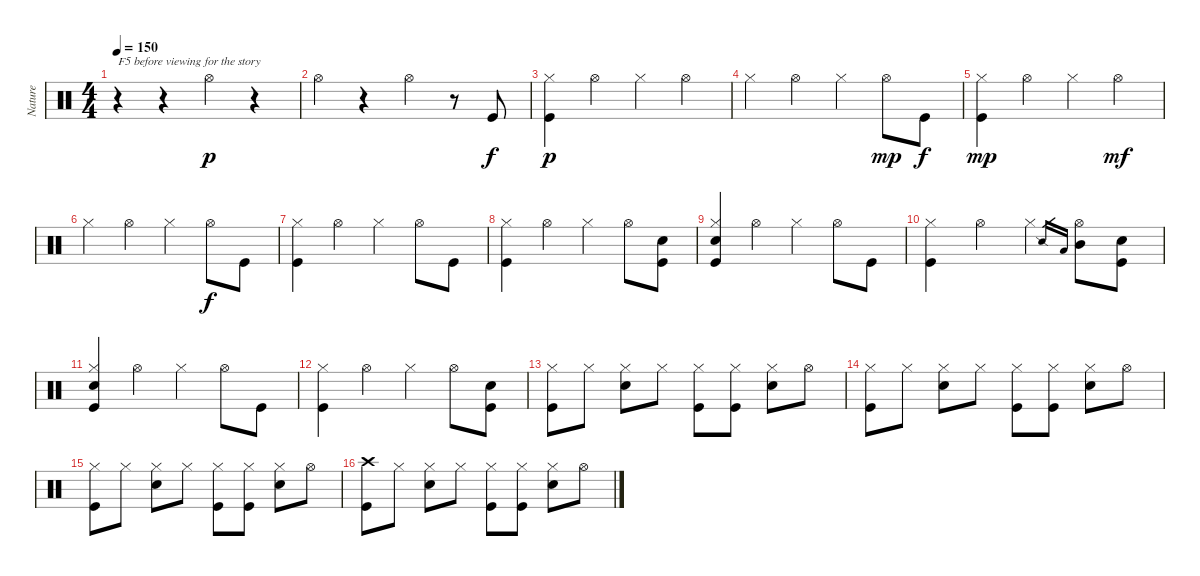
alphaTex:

\track ("Nature" "Nature") {instrument percussion}
\staff {score}
\articulation defaults
\ts (4 4)
\tempo 150
\clef neutral
\ks c
r.4{txt "F5 before viewing for the story" dy p} r.4 "Hi-Hat (open)".4 r.4 |
"Hi-Hat (open)".4 r.4 "Hi-Hat (open)".4 r.8 "Kick (hit)".8{dy f} |
("Kick (hit)" "Hi-Hat (closed)").4{dy p} "Hi-Hat (open)".4 "Hi-Hat (closed)".4 "Hi-Hat (open)".4 |
"Hi-Hat (closed)".4 "Hi-Hat (open)".4 "Hi-Hat (closed)".4 "Hi-Hat (open)".8{dy mp} "Kick (hit)".8{dy f} |
("Kick (hit)" "Hi-Hat (closed)").4{dy mp} "Hi-Hat (open)".4 "Hi-Hat (closed)".4 "Hi-Hat (open)".4{dy mf} |
"Hi-Hat (closed)".4 "Hi-Hat (open)".4 "Hi-Hat (closed)".4 "Hi-Hat (open)".8{dy f} "Kick (hit)".8 |
("Kick (hit)" "Hi-Hat (closed)").4 "Hi-Hat (open)".4 "Hi-Hat (closed)".4 "Hi-Hat (open)".8 "Kick (hit)".8 |
("Kick (hit)" "Hi-Hat (closed)").4 "Hi-Hat (open)".4 "Hi-Hat (closed)".4 "Hi-Hat (open)".8 ("Kick (hit)" "Snare (hit) 2").8 |
("Kick (hit)" "Snare (hit) 2" "Hi-Hat (closed)").4 "Hi-Hat (open)".4 "Hi-Hat (closed)".4 "Hi-Hat (open)".8 "Kick (hit)".8 |
("Kick (hit)" "Hi-Hat (closed)").4 "Hi-Hat (open)".4 "Hi-Hat (closed)".4 "Snare (side stick) 2".16{gr} "Low Tom (hit)".16{gr} ("Mid Tom (hit)" "Hi-Hat (open)").8 ("Kick (hit)" "Snare (hit) 2").8 |
("Kick (hit)" "Snare (hit) 2" "Hi-Hat (closed)").4 "Hi-Hat (open)".4 "Hi-Hat (closed)".4 "Hi-Hat (open)".8 "Kick (hit)".8 |
("Kick (hit)" "Hi-Hat (closed)").4 "Hi-Hat (open)".4 "Hi-Hat (closed)".4 "Hi-Hat (open)".8 ("Kick (hit)" "Snare (hit) 2").8 |
("Hi-Hat (closed)" "Kick (hit)").8 "Hi-Hat (closed)".8 ("Hi-Hat (closed)" "Electric Snare (hit)").8 "Hi-Hat (closed)".8 ("Hi-Hat (closed)" "Kick (hit)").8 ("Hi-Hat (closed)" "Kick (hit)").8 ("Hi-Hat (closed)" "Electric Snare (hit)").8 "Hi-Hat (open)".8 |
("Hi-Hat (closed)" "Kick (hit)").8 "Hi-Hat (closed)".8 ("Hi-Hat (closed)" "Electric Snare (hit)").8 "Hi-Hat (closed)".8 ("Hi-Hat (closed)" "Kick (hit)").8 ("Hi-Hat (closed)" "Kick (hit)").8 ("Hi-Hat (closed)" "Electric Snare (hit)").8 "Hi-Hat (open)".8 |
("Hi-Hat (closed)" "Kick (hit)").8 "Hi-Hat (closed)".8 ("Hi-Hat (closed)" "Electric Snare (hit)").8 "Hi-Hat (closed)".8 ("Hi-Hat (closed)" "Kick (hit)").8 ("Hi-Hat (closed)" "Kick (hit)").8 ("Hi-Hat (closed)" "Electric Snare (hit)").8 "Hi-Hat (open)".8 |
("Crash high (hit)" "Kick (hit)").8 "Hi-Hat (closed)".8 ("Hi-Hat (closed)" "Electric Snare (hit)").8 "Hi-Hat (closed)".8 ("Hi-Hat (closed)" "Kick (hit)").8 ("Hi-Hat (closed)" "Kick (hit)").8 ("Hi-Hat (closed)" "Electric Snare (hit)").8 "Hi-Hat (open)".8
